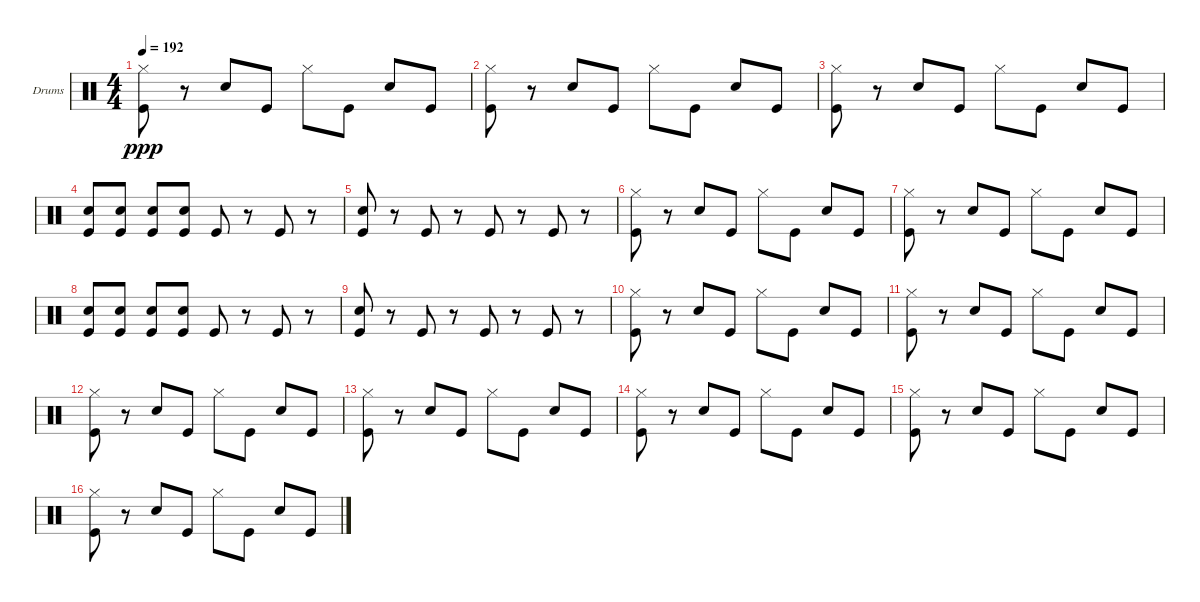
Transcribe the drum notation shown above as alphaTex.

\bracketExtendMode groupsimilarinstruments
\firstSystemTrackNameOrientation horizontal
\otherSystemsTrackNameOrientation horizontal
\track ("Drumkit" "Drums") {instrument percussion}
\staff {score}
\articulation defaults
\ts (4 4)
\tempo 192
\clef neutral
\ks c
("Kick (hit)" "Hi-Hat (closed)").8{dy ppp} r.8 "Snare (hit) 2".8 "Kick (hit)".8 "Hi-Hat (closed)".8 "Kick (hit)".8 "Snare (hit) 2".8 "Kick (hit)".8 |
("Kick (hit)" "Hi-Hat (closed)").8 r.8 "Snare (hit) 2".8 "Kick (hit)".8 "Hi-Hat (closed)".8 "Kick (hit)".8 "Snare (hit) 2".8 "Kick (hit)".8 |
("Kick (hit)" "Hi-Hat (closed)").8 r.8 "Snare (hit) 2".8 "Kick (hit)".8 "Hi-Hat (closed)".8 "Kick (hit)".8 "Snare (hit) 2".8 "Kick (hit)".8 |
("Snare (hit) 2" "Kick (hit)").8 ("Snare (hit) 2" "Kick (hit)").8 ("Snare (hit) 2" "Kick (hit)").8 ("Snare (hit) 2" "Kick (hit)").8 "Kick (hit)".8 r.8 "Kick (hit)".8 r.8 |
("Snare (hit) 2" "Kick (hit)").8 r.8 "Kick (hit)".8 r.8 "Kick (hit)".8 r.8 "Kick (hit)".8 r.8 |
("Kick (hit)" "Hi-Hat (closed)").8 r.8 "Snare (hit) 2".8 "Kick (hit)".8 "Hi-Hat (closed)".8 "Kick (hit)".8 "Snare (hit) 2".8 "Kick (hit)".8 |
("Kick (hit)" "Hi-Hat (closed)").8 r.8 "Snare (hit) 2".8 "Kick (hit)".8 "Hi-Hat (closed)".8 "Kick (hit)".8 "Snare (hit) 2".8 "Kick (hit)".8 |
("Snare (hit) 2" "Kick (hit)").8 ("Snare (hit) 2" "Kick (hit)").8 ("Snare (hit) 2" "Kick (hit)").8 ("Snare (hit) 2" "Kick (hit)").8 "Kick (hit)".8 r.8 "Kick (hit)".8 r.8 |
("Snare (hit) 2" "Kick (hit)").8 r.8 "Kick (hit)".8 r.8 "Kick (hit)".8 r.8 "Kick (hit)".8 r.8 |
("Kick (hit)" "Hi-Hat (closed)").8 r.8 "Snare (hit) 2".8 "Kick (hit)".8 "Hi-Hat (closed)".8 "Kick (hit)".8 "Snare (hit) 2".8 "Kick (hit)".8 |
("Kick (hit)" "Hi-Hat (closed)").8 r.8 "Snare (hit) 2".8 "Kick (hit)".8 "Hi-Hat (closed)".8 "Kick (hit)".8 "Snare (hit) 2".8 "Kick (hit)".8 |
("Kick (hit)" "Hi-Hat (closed)").8 r.8 "Snare (hit) 2".8 "Kick (hit)".8 "Hi-Hat (closed)".8 "Kick (hit)".8 "Snare (hit) 2".8 "Kick (hit)".8 |
("Kick (hit)" "Hi-Hat (closed)").8 r.8 "Snare (hit) 2".8 "Kick (hit)".8 "Hi-Hat (closed)".8 "Kick (hit)".8 "Snare (hit) 2".8 "Kick (hit)".8 |
("Kick (hit)" "Hi-Hat (closed)").8 r.8 "Snare (hit) 2".8 "Kick (hit)".8 "Hi-Hat (closed)".8 "Kick (hit)".8 "Snare (hit) 2".8 "Kick (hit)".8 |
("Kick (hit)" "Hi-Hat (closed)").8 r.8 "Snare (hit) 2".8 "Kick (hit)".8 "Hi-Hat (closed)".8 "Kick (hit)".8 "Snare (hit) 2".8 "Kick (hit)".8 |
("Kick (hit)" "Hi-Hat (closed)").8 r.8 "Snare (hit) 2".8 "Kick (hit)".8 "Hi-Hat (closed)".8 "Kick (hit)".8 "Snare (hit) 2".8 "Kick (hit)".8
